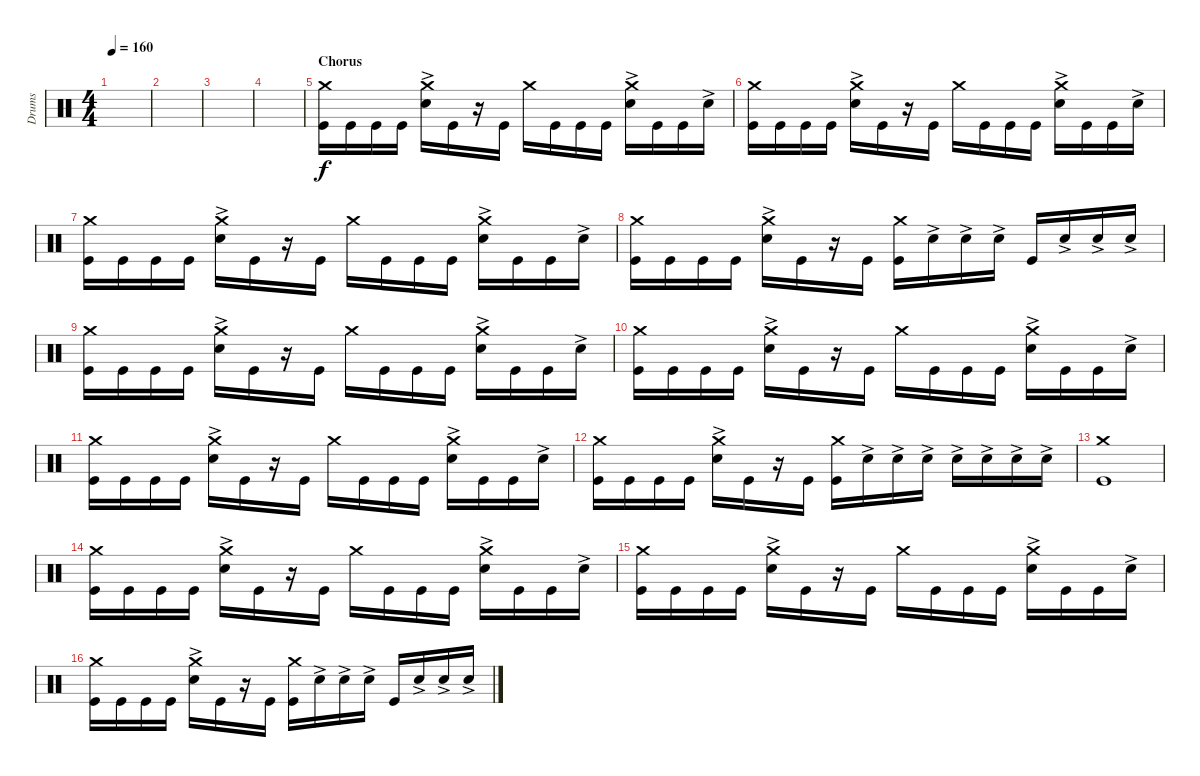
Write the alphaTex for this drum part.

\track ("Drums" "Drums") {instrument percussion}
\staff {score}
\articulation defaults
\ts (4 4)
\tempo 160
\clef neutral
\ks c
|
|
|
|
\section ("" "Chorus")
("Crash medium (hit)" "Kick (hit)").16 "Kick (hit)".16 "Kick (hit)".16 "Kick (hit)".16 ("Crash medium (hit)" "Snare (hit) 2"{ac}).16 "Kick (hit)".16 r.16 "Kick (hit)".16 "Crash medium (hit)".16 "Kick (hit)".16 "Kick (hit)".16 "Kick (hit)".16 ("Crash medium (hit)" "Snare (hit) 2"{ac}).16 "Kick (hit)".16 "Kick (hit)".16 "Snare (hit) 2"{ac}.16 |
("Crash medium (hit)" "Kick (hit)").16 "Kick (hit)".16 "Kick (hit)".16 "Kick (hit)".16 ("Crash medium (hit)" "Snare (hit) 2"{ac}).16 "Kick (hit)".16 r.16 "Kick (hit)".16 "Crash medium (hit)".16 "Kick (hit)".16 "Kick (hit)".16 "Kick (hit)".16 ("Crash medium (hit)" "Snare (hit) 2"{ac}).16 "Kick (hit)".16 "Kick (hit)".16 "Snare (hit) 2"{ac}.16 |
("Crash medium (hit)" "Kick (hit)").16 "Kick (hit)".16 "Kick (hit)".16 "Kick (hit)".16 ("Crash medium (hit)" "Snare (hit) 2"{ac}).16 "Kick (hit)".16 r.16 "Kick (hit)".16 "Crash medium (hit)".16 "Kick (hit)".16 "Kick (hit)".16 "Kick (hit)".16 ("Crash medium (hit)" "Snare (hit) 2"{ac}).16 "Kick (hit)".16 "Kick (hit)".16 "Snare (hit) 2"{ac}.16 |
("Crash medium (hit)" "Kick (hit)").16 "Kick (hit)".16 "Kick (hit)".16 "Kick (hit)".16 ("Crash medium (hit)" "Snare (hit) 2"{ac}).16 "Kick (hit)".16 r.16 "Kick (hit)".16 ("Kick (hit)" "Crash medium (hit)").16 "Snare (hit) 2"{ac}.16 "Snare (hit) 2"{ac}.16 "Snare (hit) 2"{ac}.16 "Kick (hit)".16 "Snare (hit) 2"{ac}.16 "Snare (hit) 2"{ac}.16 "Snare (hit) 2"{ac}.16 |
("Crash medium (hit)" "Kick (hit)").16 "Kick (hit)".16 "Kick (hit)".16 "Kick (hit)".16 ("Crash medium (hit)" "Snare (hit) 2"{ac}).16 "Kick (hit)".16 r.16 "Kick (hit)".16 "Crash medium (hit)".16 "Kick (hit)".16 "Kick (hit)".16 "Kick (hit)".16 ("Crash medium (hit)" "Snare (hit) 2"{ac}).16 "Kick (hit)".16 "Kick (hit)".16 "Snare (hit) 2"{ac}.16 |
("Crash medium (hit)" "Kick (hit)").16 "Kick (hit)".16 "Kick (hit)".16 "Kick (hit)".16 ("Crash medium (hit)" "Snare (hit) 2"{ac}).16 "Kick (hit)".16 r.16 "Kick (hit)".16 "Crash medium (hit)".16 "Kick (hit)".16 "Kick (hit)".16 "Kick (hit)".16 ("Crash medium (hit)" "Snare (hit) 2"{ac}).16 "Kick (hit)".16 "Kick (hit)".16 "Snare (hit) 2"{ac}.16 |
("Crash medium (hit)" "Kick (hit)").16 "Kick (hit)".16 "Kick (hit)".16 "Kick (hit)".16 ("Crash medium (hit)" "Snare (hit) 2"{ac}).16 "Kick (hit)".16 r.16 "Kick (hit)".16 "Crash medium (hit)".16 "Kick (hit)".16 "Kick (hit)".16 "Kick (hit)".16 ("Crash medium (hit)" "Snare (hit) 2"{ac}).16 "Kick (hit)".16 "Kick (hit)".16 "Snare (hit) 2"{ac}.16 |
("Crash medium (hit)" "Kick (hit)").16 "Kick (hit)".16 "Kick (hit)".16 "Kick (hit)".16 ("Crash medium (hit)" "Snare (hit) 2"{ac}).16 "Kick (hit)".16 r.16 "Kick (hit)".16 ("Kick (hit)" "Crash medium (hit)").16 "Snare (hit) 2"{ac}.16 "Snare (hit) 2"{ac}.16 "Snare (hit) 2"{ac}.16 "Snare (hit) 2"{ac}.16 "Snare (hit) 2"{ac}.16 "Snare (hit) 2"{ac}.16 "Snare (hit) 2"{ac}.16 |
("Crash medium (hit)" "Kick (hit)").1 |
("Crash medium (hit)" "Kick (hit)").16 "Kick (hit)".16 "Kick (hit)".16 "Kick (hit)".16 ("Crash medium (hit)" "Snare (hit) 2"{ac}).16 "Kick (hit)".16 r.16 "Kick (hit)".16 "Crash medium (hit)".16 "Kick (hit)".16 "Kick (hit)".16 "Kick (hit)".16 ("Crash medium (hit)" "Snare (hit) 2"{ac}).16 "Kick (hit)".16 "Kick (hit)".16 "Snare (hit) 2"{ac}.16 |
("Crash medium (hit)" "Kick (hit)").16 "Kick (hit)".16 "Kick (hit)".16 "Kick (hit)".16 ("Crash medium (hit)" "Snare (hit) 2"{ac}).16 "Kick (hit)".16 r.16 "Kick (hit)".16 "Crash medium (hit)".16 "Kick (hit)".16 "Kick (hit)".16 "Kick (hit)".16 ("Crash medium (hit)" "Snare (hit) 2"{ac}).16 "Kick (hit)".16 "Kick (hit)".16 "Snare (hit) 2"{ac}.16 |
("Crash medium (hit)" "Kick (hit)").16 "Kick (hit)".16 "Kick (hit)".16 "Kick (hit)".16 ("Crash medium (hit)" "Snare (hit) 2"{ac}).16 "Kick (hit)".16 r.16 "Kick (hit)".16 ("Kick (hit)" "Crash medium (hit)").16 "Snare (hit) 2"{ac}.16 "Snare (hit) 2"{ac}.16 "Snare (hit) 2"{ac}.16 "Kick (hit)".16 "Snare (hit) 2"{ac}.16 "Snare (hit) 2"{ac}.16 "Snare (hit) 2"{ac}.16
